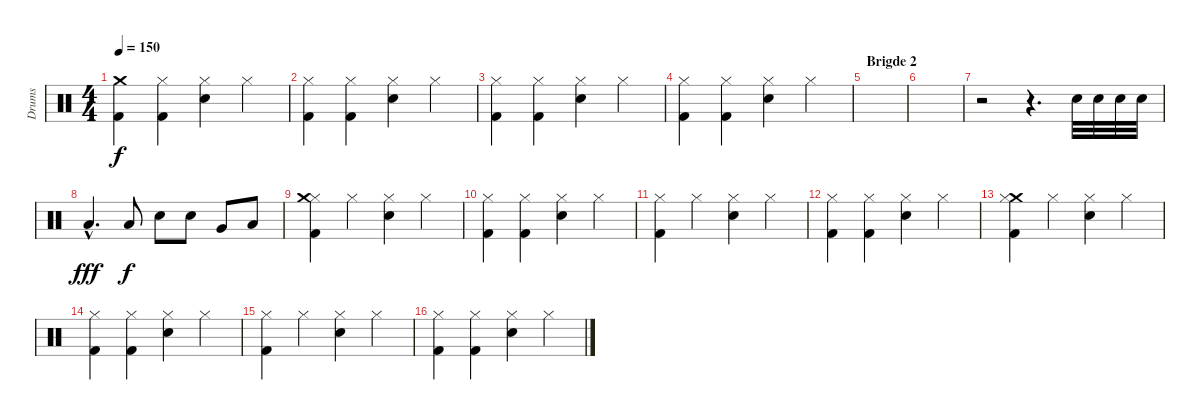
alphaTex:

\track ("Drums" "Drums") {instrument percussion}
\staff {score}
\articulation defaults
\ts (4 4)
\tempo 150
\clef neutral
\ks c
("Kick (hit) 2" "Crash medium (hit)").4{dy f} ("Hi-Hat (closed)" "Kick (hit) 2").4 ("Hi-Hat (closed)" "Snare (hit) 2").4 "Hi-Hat (closed)".4 |
("Kick (hit) 2" "Hi-Hat (closed)").4 ("Hi-Hat (closed)" "Kick (hit) 2").4 ("Hi-Hat (closed)" "Snare (hit) 2").4 "Hi-Hat (closed)".4 |
("Kick (hit) 2" "Hi-Hat (closed)").4 ("Hi-Hat (closed)" "Kick (hit) 2").4 ("Hi-Hat (closed)" "Snare (hit) 2").4 "Hi-Hat (closed)".4 |
("Kick (hit) 2" "Hi-Hat (closed)").4 ("Hi-Hat (closed)" "Kick (hit) 2").4 ("Hi-Hat (closed)" "Snare (hit) 2").4 "Hi-Hat (closed)".4 |
\section ("" "Brigde 2")
|
|
r.2 r.4{d} "Electric Snare (hit)".32 "Electric Snare (hit)".32 "Electric Snare (hit)".32 "Electric Snare (hit)".32 |
"Low Tom (hit)"{hac}.4{d dy fff} "Low Tom (hit)".8{dy f} "Snare (hit) 2".8 "Snare (hit) 2".8 "Very Low Tom (hit)".8 "Low Floor Tom (hit)".8 |
("Kick (hit) 2" "Hi-Hat (closed)" "Crash medium (hit)").4 "Hi-Hat (closed)".4 ("Hi-Hat (closed)" "Snare (hit) 2").4 "Hi-Hat (closed)".4 |
("Kick (hit) 2" "Hi-Hat (closed)").4 ("Hi-Hat (closed)" "Kick (hit) 2").4 ("Hi-Hat (closed)" "Snare (hit) 2").4 "Hi-Hat (closed)".4 |
("Kick (hit) 2" "Hi-Hat (closed)").4 "Hi-Hat (closed)".4 ("Hi-Hat (closed)" "Snare (hit) 2").4 "Hi-Hat (closed)".4 |
("Kick (hit) 2" "Hi-Hat (closed)").4 ("Hi-Hat (closed)" "Kick (hit) 2").4 ("Hi-Hat (closed)" "Snare (hit) 2").4 "Hi-Hat (closed)".4 |
("Kick (hit) 2" "Crash medium (hit)" "Hi-Hat (closed)").4 "Hi-Hat (closed)".4 ("Hi-Hat (closed)" "Snare (hit) 2").4 "Hi-Hat (closed)".4 |
("Kick (hit) 2" "Hi-Hat (closed)").4 ("Hi-Hat (closed)" "Kick (hit) 2").4 ("Hi-Hat (closed)" "Snare (hit) 2").4 "Hi-Hat (closed)".4 |
("Kick (hit) 2" "Hi-Hat (closed)").4 "Hi-Hat (closed)".4 ("Hi-Hat (closed)" "Snare (hit) 2").4 "Hi-Hat (closed)".4 |
("Kick (hit) 2" "Hi-Hat (closed)").4 ("Hi-Hat (closed)" "Kick (hit) 2").4 ("Hi-Hat (closed)" "Snare (hit) 2").4 "Hi-Hat (closed)".4
